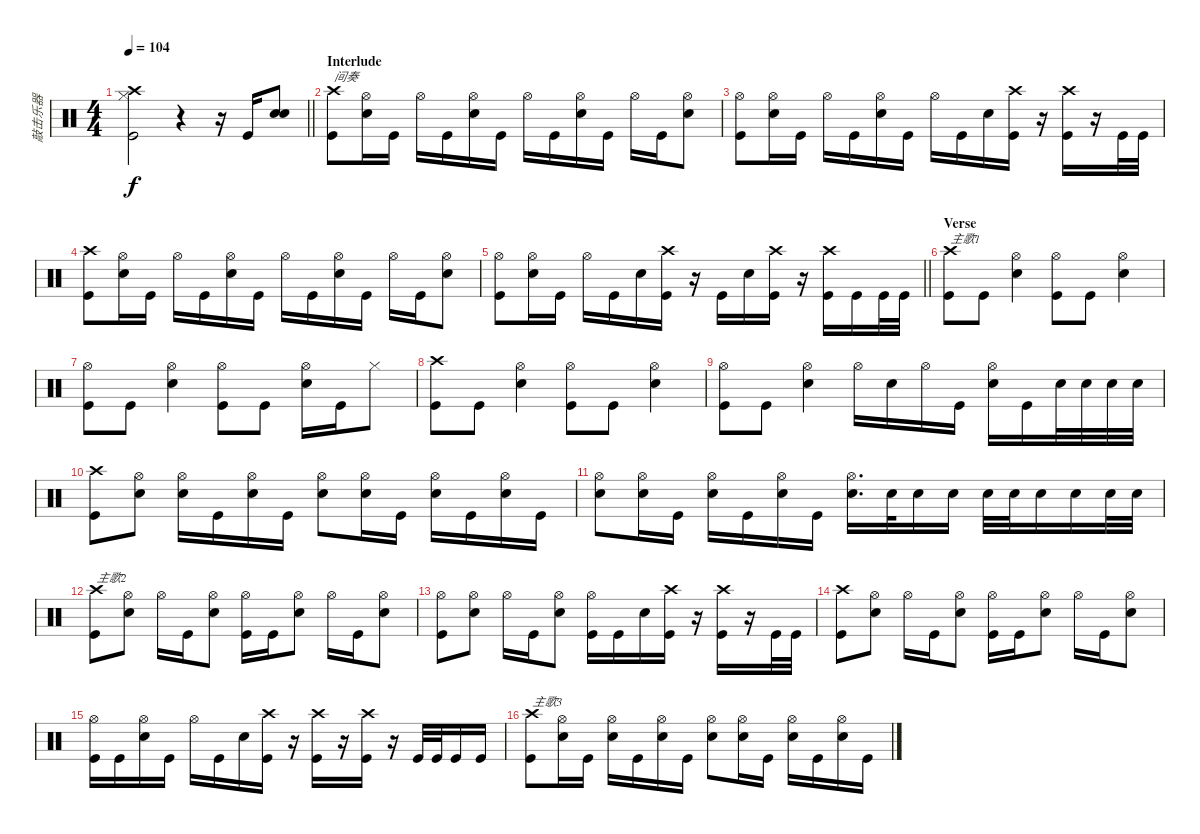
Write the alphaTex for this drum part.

\track ("敲击乐器" "敲击乐器") {instrument percussion}
\staff {score}
\articulation defaults
\ts (4 4)
\tempo 104
\clef neutral
\barLineRight lightlight
\ks c
("Hi-Hat (closed)" "Crash high (hit)" "Kick (hit)").2{dy f} r.4 r.16 "Kick (hit)".16 ("Snare (hit) 2" "Snare (hit) 2").8 |
\section ("" "Interlude")
("Crash high (hit)" "Kick (hit)").8{txt "间奏"} ("Snare (hit) 2" "Hi-Hat (open)").16 "Kick (hit)".16 "Hi-Hat (open)".16 "Kick (hit)".16 ("Snare (hit) 2" "Hi-Hat (open)").16 "Kick (hit)".16 "Hi-Hat (open)".16 "Kick (hit)".16 ("Snare (hit) 2" "Hi-Hat (open)").16 "Kick (hit)".16 "Hi-Hat (open)".16 "Kick (hit)".16 ("Snare (hit) 2" "Hi-Hat (open)").8 |
("Hi-Hat (open)" "Kick (hit)").8 ("Snare (hit) 2" "Hi-Hat (open)").16 "Kick (hit)".16 "Hi-Hat (open)".16 "Kick (hit)".16 ("Snare (hit) 2" "Hi-Hat (open)").16 "Kick (hit)".16 "Hi-Hat (open)".16 "Kick (hit)".16 "Snare (hit) 2".16 ("Crash high (hit)" "Kick (hit)").16 r.16 ("Kick (hit)" "Crash high (hit)").16 r.16 "Kick (hit)".32 "Kick (hit)".32 |
("Crash high (hit)" "Kick (hit)").8 ("Snare (hit) 2" "Hi-Hat (open)").16 "Kick (hit)".16 "Hi-Hat (open)".16 "Kick (hit)".16 ("Snare (hit) 2" "Hi-Hat (open)").16 "Kick (hit)".16 "Hi-Hat (open)".16 "Kick (hit)".16 ("Snare (hit) 2" "Hi-Hat (open)").16 "Kick (hit)".16 "Hi-Hat (open)".16 "Kick (hit)".16 ("Snare (hit) 2" "Hi-Hat (open)").8 |
\barLineRight lightlight
("Hi-Hat (open)" "Kick (hit)").8 ("Snare (hit) 2" "Hi-Hat (open)").16 "Kick (hit)".16 "Hi-Hat (open)".16 "Kick (hit)".16 "Snare (hit) 2".16 ("Kick (hit)" "Crash high (hit)").16 r.16 "Kick (hit)".16 "Snare (hit) 2".16 ("Crash high (hit)" "Kick (hit)").16 r.16 ("Crash high (hit)" "Kick (hit)").16 "Kick (hit)".16 "Kick (hit)".32 "Kick (hit)".32 |
\section ("" "Verse")
("Crash high (hit)" "Kick (hit)").8{txt "主歌1"} "Kick (hit)".8 ("Snare (hit) 2" "Hi-Hat (open)").4 ("Kick (hit)" "Hi-Hat (open)").8 "Kick (hit)".8 ("Snare (hit) 2" "Hi-Hat (open)").4 |
("Kick (hit)" "Hi-Hat (open)").8 "Kick (hit)".8 ("Snare (hit) 2" "Hi-Hat (open)").4 ("Kick (hit)" "Hi-Hat (open)").8 "Kick (hit)".8 ("Snare (hit) 2" "Hi-Hat (open)").16 "Kick (hit)".16 "Hi-Hat (closed)".8 |
("Crash high (hit)" "Kick (hit)").8 "Kick (hit)".8 ("Snare (hit) 2" "Hi-Hat (open)").4 ("Kick (hit)" "Hi-Hat (open)").8 "Kick (hit)".8 ("Snare (hit) 2" "Hi-Hat (open)").4 |
("Kick (hit)" "Hi-Hat (open)").8 "Kick (hit)".8 ("Snare (hit) 2" "Hi-Hat (open)").4 "Hi-Hat (open)".16 "Snare (hit) 2".16 "Hi-Hat (open)".16 "Kick (hit)".16 ("Snare (hit) 2" "Hi-Hat (open)").16 "Kick (hit)".16 "Snare (hit) 2".32 "Snare (hit) 2".32 "Snare (hit) 2".32 "Snare (hit) 2".32 |
("Crash high (hit)" "Kick (hit)").8 ("Snare (hit) 2" "Hi-Hat (open)").8 ("Snare (hit) 2" "Hi-Hat (open)").16 "Kick (hit)".16 ("Snare (hit) 2" "Hi-Hat (open)").16 "Kick (hit)".16 ("Snare (hit) 2" "Hi-Hat (open)").8 ("Snare (hit) 2" "Hi-Hat (open)").16 "Kick (hit)".16 ("Snare (hit) 2" "Hi-Hat (open)").16 "Kick (hit)".16 ("Snare (hit) 2" "Hi-Hat (open)").16 "Kick (hit)".16 |
("Snare (hit) 2" "Hi-Hat (open)").8 ("Snare (hit) 2" "Hi-Hat (open)").16 "Kick (hit)".16 ("Snare (hit) 2" "Hi-Hat (open)").16 "Kick (hit)".16 ("Snare (hit) 2" "Hi-Hat (open)").16 "Kick (hit)".16 ("Snare (hit) 2" "Hi-Hat (open)").16{d} "Snare (hit) 2".32 "Snare (hit) 2".16 "Snare (hit) 2".16 "Snare (hit) 2".32 "Snare (hit) 2".32 "Snare (hit) 2".16 "Snare (hit) 2".16 "Snare (hit) 2".32 "Snare (hit) 2".32 |
("Kick (hit)" "Crash high (hit)").8{txt "主歌2"} ("Snare (hit) 2" "Hi-Hat (open)").8 "Hi-Hat (open)".16 "Kick (hit)".16 ("Snare (hit) 2" "Hi-Hat (open)").8 ("Kick (hit)" "Hi-Hat (open)").16 "Kick (hit)".16 ("Snare (hit) 2" "Hi-Hat (open)").8 "Hi-Hat (open)".16 "Kick (hit)".16 ("Snare (hit) 2" "Hi-Hat (open)").8 |
("Kick (hit)" "Hi-Hat (open)").8 ("Snare (hit) 2" "Hi-Hat (open)").8 "Hi-Hat (open)".16 "Kick (hit)".16 ("Snare (hit) 2" "Hi-Hat (open)").8 ("Hi-Hat (open)" "Kick (hit)").16 "Kick (hit)".16 "Snare (hit) 2".16 ("Crash high (hit)" "Kick (hit)").16 r.16 ("Kick (hit)" "Crash high (hit)").16 r.16 "Kick (hit)".32 "Kick (hit)".32 |
("Kick (hit)" "Crash high (hit)").8 ("Snare (hit) 2" "Hi-Hat (open)").8 "Hi-Hat (open)".16 "Kick (hit)".16 ("Snare (hit) 2" "Hi-Hat (open)").8 ("Kick (hit)" "Hi-Hat (open)").16 "Kick (hit)".16 ("Snare (hit) 2" "Hi-Hat (open)").8 "Hi-Hat (open)".16 "Kick (hit)".16 ("Snare (hit) 2" "Hi-Hat (open)").8 |
("Kick (hit)" "Hi-Hat (open)").16 "Kick (hit)".16 ("Snare (hit) 2" "Hi-Hat (open)").16 "Kick (hit)".16 "Hi-Hat (open)".16 "Kick (hit)".16 "Snare (hit) 2".16 ("Kick (hit)" "Crash high (hit)").16 r.16 ("Crash high (hit)" "Kick (hit)").16 r.16 ("Crash high (hit)" "Kick (hit)").16 r.16 "Kick (hit)".32 "Kick (hit)".32 "Kick (hit)".16 "Kick (hit)".16 |
("Crash high (hit)" "Kick (hit)").8{txt "主歌3"} ("Snare (hit) 2" "Hi-Hat (open)").16 "Kick (hit)".16 ("Snare (hit) 2" "Hi-Hat (open)").16 "Kick (hit)".16 ("Snare (hit) 2" "Hi-Hat (open)").16 "Kick (hit)".16 ("Hi-Hat (open)" "Snare (hit) 2").8 ("Snare (hit) 2" "Hi-Hat (open)").16 "Kick (hit)".16 ("Snare (hit) 2" "Hi-Hat (open)").16 "Kick (hit)".16 ("Snare (hit) 2" "Hi-Hat (open)").16 "Kick (hit)".16
